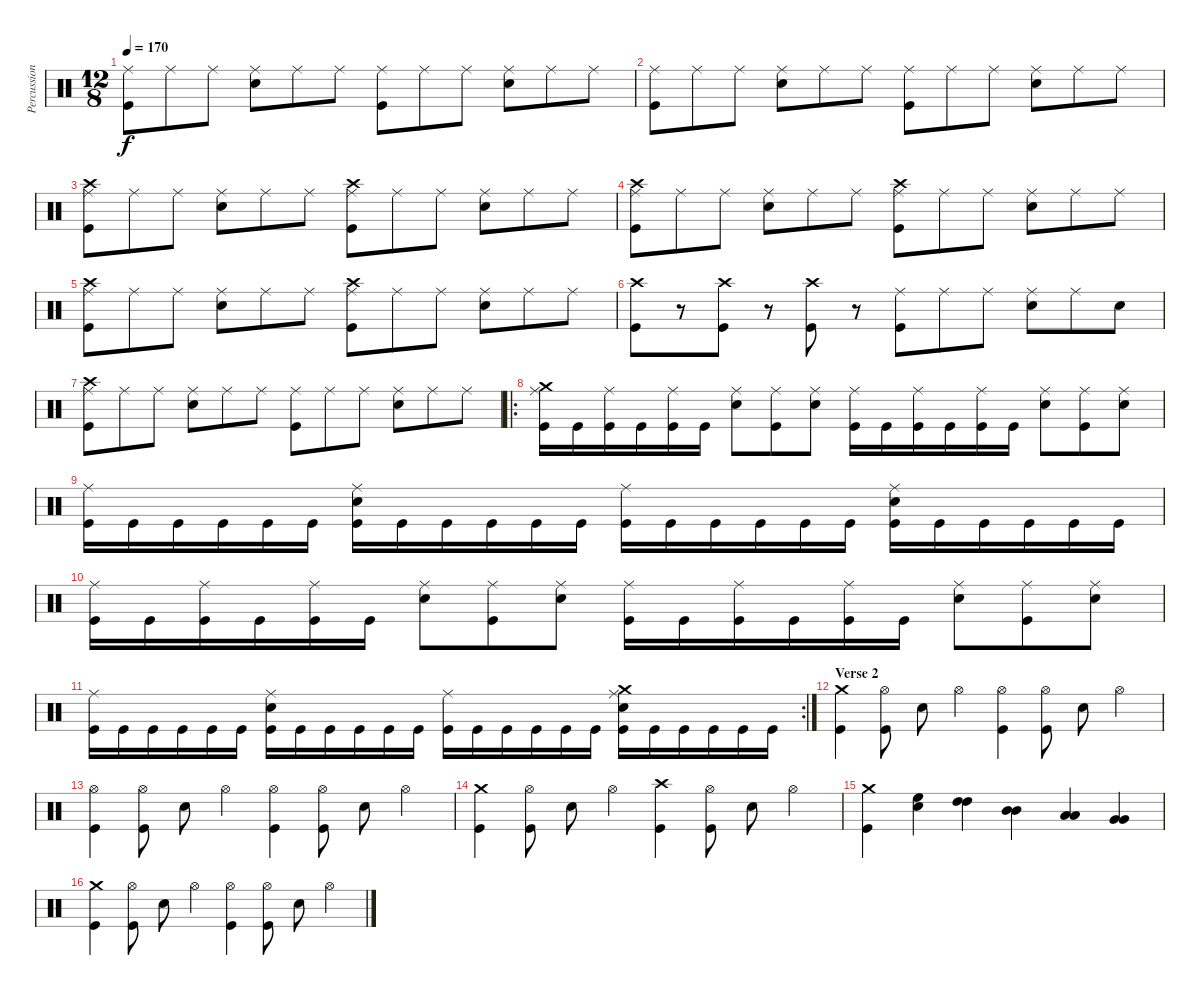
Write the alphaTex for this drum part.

\track ("Percussion" "Percussion") {instrument percussion}
\staff {score}
\articulation defaults
\ts (12 8)
\tempo 170
\clef neutral
\ks c
("Ride (middle)" "Kick (hit)").8{dy f} "Ride (middle)".8 "Ride (middle)".8 ("Ride (middle)" "Snare (hit) 2").8 "Ride (middle)".8 "Ride (middle)".8 ("Ride (middle)" "Kick (hit)").8 "Ride (middle)".8 "Ride (middle)".8 ("Ride (middle)" "Snare (hit) 2").8 "Ride (middle)".8 "Ride (middle)".8 |
("Ride (middle)" "Kick (hit)").8 "Ride (middle)".8 "Ride (middle)".8 ("Ride (middle)" "Snare (hit) 2").8 "Ride (middle)".8 "Ride (middle)".8 ("Ride (middle)" "Kick (hit)").8 "Ride (middle)".8 "Ride (middle)".8 ("Ride (middle)" "Snare (hit) 2").8 "Ride (middle)".8 "Ride (middle)".8 |
("Crash high (hit)" "Ride (middle)" "Kick (hit)").8 "Ride (middle)".8 "Ride (middle)".8 ("Ride (middle)" "Snare (hit) 2").8 "Ride (middle)".8 "Ride (middle)".8 ("Crash high (hit)" "Ride (middle)" "Kick (hit)").8 "Ride (middle)".8 "Ride (middle)".8 ("Ride (middle)" "Snare (hit) 2").8 "Ride (middle)".8 "Ride (middle)".8 |
("Crash high (hit)" "Ride (middle)" "Kick (hit)").8 "Ride (middle)".8 "Ride (middle)".8 ("Ride (middle)" "Snare (hit) 2").8 "Ride (middle)".8 "Ride (middle)".8 ("Crash high (hit)" "Ride (middle)" "Kick (hit)").8 "Ride (middle)".8 "Ride (middle)".8 ("Ride (middle)" "Snare (hit) 2").8 "Ride (middle)".8 "Ride (middle)".8 |
("Crash high (hit)" "Ride (middle)" "Kick (hit)").8 "Ride (middle)".8 "Ride (middle)".8 ("Ride (middle)" "Snare (hit) 2").8 "Ride (middle)".8 "Ride (middle)".8 ("Crash high (hit)" "Ride (middle)" "Kick (hit)").8 "Ride (middle)".8 "Ride (middle)".8 ("Ride (middle)" "Snare (hit) 2").8 "Ride (middle)".8 "Ride (middle)".8 |
("Crash high (hit)" "Kick (hit)").8 r.8{volume 0} ("Crash high (hit)" "Kick (hit)").8{volume 10} r.8{volume 0} ("Crash high (hit)" "Kick (hit)").8{volume 10} r.8{volume 0} ("Ride (middle)" "Kick (hit)").8{volume 10} "Ride (middle)".8 "Ride (middle)".8 ("Ride (middle)" "Snare (hit) 2").8 "Ride (middle)".8 "Snare (hit)".8 |
("Crash high (hit)" "Ride (middle)" "Kick (hit)").8 "Ride (middle)".8 "Ride (middle)".8 ("Ride (middle)" "Snare (hit) 2").8 "Ride (middle)".8 "Ride (middle)".8 ("Ride (middle)" "Kick (hit)").8 "Ride (middle)".8 "Ride (middle)".8 ("Ride (middle)" "Snare (hit) 2").8 "Ride (middle)".8 "Ride (middle)".8 |
\ro
("Crash medium (hit)" "Ride (middle)" "Kick (hit)").16 "Kick (hit)".16 ("Ride (middle)" "Kick (hit)").16 "Kick (hit)".16 ("Ride (middle)" "Kick (hit)").16 "Kick (hit)".16 ("Ride (middle)" "Snare (hit) 2").8 ("Ride (middle)" "Kick (hit)").8 ("Ride (middle)" "Snare (hit) 2").8 ("Ride (middle)" "Kick (hit)").16 "Kick (hit)".16 ("Ride (middle)" "Kick (hit)").16 "Kick (hit)".16 ("Ride (middle)" "Kick (hit)").16 "Kick (hit)".16 ("Ride (middle)" "Snare (hit) 2").8 ("Ride (middle)" "Kick (hit)").8 ("Ride (middle)" "Snare (hit) 2").8 |
("Ride (middle)" "Kick (hit)").16 "Kick (hit)".16 "Kick (hit)".16 "Kick (hit)".16 "Kick (hit)".16 "Kick (hit)".16 ("Ride (middle)" "Snare (hit) 2" "Kick (hit)").16 "Kick (hit)".16 "Kick (hit)".16 "Kick (hit)".16 "Kick (hit)".16 "Kick (hit)".16 ("Ride (middle)" "Kick (hit)").16 "Kick (hit)".16 "Kick (hit)".16 "Kick (hit)".16 "Kick (hit)".16 "Kick (hit)".16 ("Ride (middle)" "Snare (hit) 2" "Kick (hit)").16 "Kick (hit)".16 "Kick (hit)".16 "Kick (hit)".16 "Kick (hit)".16 "Kick (hit)".16 |
("Ride (middle)" "Kick (hit)").16 "Kick (hit)".16 ("Ride (middle)" "Kick (hit)").16 "Kick (hit)".16 ("Ride (middle)" "Kick (hit)").16 "Kick (hit)".16 ("Ride (middle)" "Snare (hit) 2").8 ("Ride (middle)" "Kick (hit)").8 ("Ride (middle)" "Snare (hit) 2").8 ("Ride (middle)" "Kick (hit)").16 "Kick (hit)".16 ("Ride (middle)" "Kick (hit)").16 "Kick (hit)".16 ("Ride (middle)" "Kick (hit)").16 "Kick (hit)".16 ("Ride (middle)" "Snare (hit) 2").8 ("Ride (middle)" "Kick (hit)").8 ("Ride (middle)" "Snare (hit) 2").8 |
\rc 2
("Ride (middle)" "Kick (hit)").16 "Kick (hit)".16 "Kick (hit)".16 "Kick (hit)".16 "Kick (hit)".16 "Kick (hit)".16 ("Ride (middle)" "Snare (hit) 2" "Kick (hit)").16 "Kick (hit)".16 "Kick (hit)".16 "Kick (hit)".16 "Kick (hit)".16 "Kick (hit)".16 ("Ride (middle)" "Kick (hit)").16 "Kick (hit)".16 "Kick (hit)".16 "Kick (hit)".16 "Kick (hit)".16 "Kick (hit)".16 ("Crash medium (hit)" "Ride (middle)" "Snare (hit) 2" "Kick (hit)").16 "Kick (hit)".16 "Kick (hit)".16 "Kick (hit)".16 "Kick (hit)".16 "Kick (hit)".16 |
\section ("" "Verse 2")
("Crash medium (hit)" "Kick (hit)").4 ("Hi-Hat (open)" "Kick (hit)").8 "Snare (hit) 2".8 "Hi-Hat (open)".4 ("Hi-Hat (open)" "Kick (hit)").4 ("Hi-Hat (open)" "Kick (hit)").8 "Snare (hit) 2".8 "Hi-Hat (open)".4 |
("Hi-Hat (open)" "Kick (hit)").4 ("Hi-Hat (open)" "Kick (hit)").8 "Snare (hit) 2".8 "Hi-Hat (open)".4 ("Hi-Hat (open)" "Kick (hit)").4 ("Hi-Hat (open)" "Kick (hit)").8 "Snare (hit) 2".8 "Hi-Hat (open)".4 |
("Crash medium (hit)" "Kick (hit)").4 ("Hi-Hat (open)" "Kick (hit)").8 "Snare (hit) 2".8 "Hi-Hat (open)".4 ("Crash high (hit)" "Kick (hit)").4 ("Hi-Hat (open)" "Kick (hit)").8 "Snare (hit) 2".8 "Hi-Hat (open)".4 |
("Crash medium (hit)" "Kick (hit)").4 ("Snare (hit) 2" "High Floor Tom (hit)").4 ("High Tom (hit)" "High Tom (hit)").4 ("Mid Tom (hit)" "Mid Tom (hit)").4 ("Low Tom (hit)" "Low Tom (hit)").4 ("Very Low Tom (hit)" "Very Low Tom (hit)").4 |
("Crash medium (hit)" "Kick (hit)").4 ("Hi-Hat (open)" "Kick (hit)").8 "Snare (hit) 2".8 "Hi-Hat (open)".4 ("Hi-Hat (open)" "Kick (hit)").4 ("Hi-Hat (open)" "Kick (hit)").8 "Snare (hit) 2".8 "Hi-Hat (open)".4
